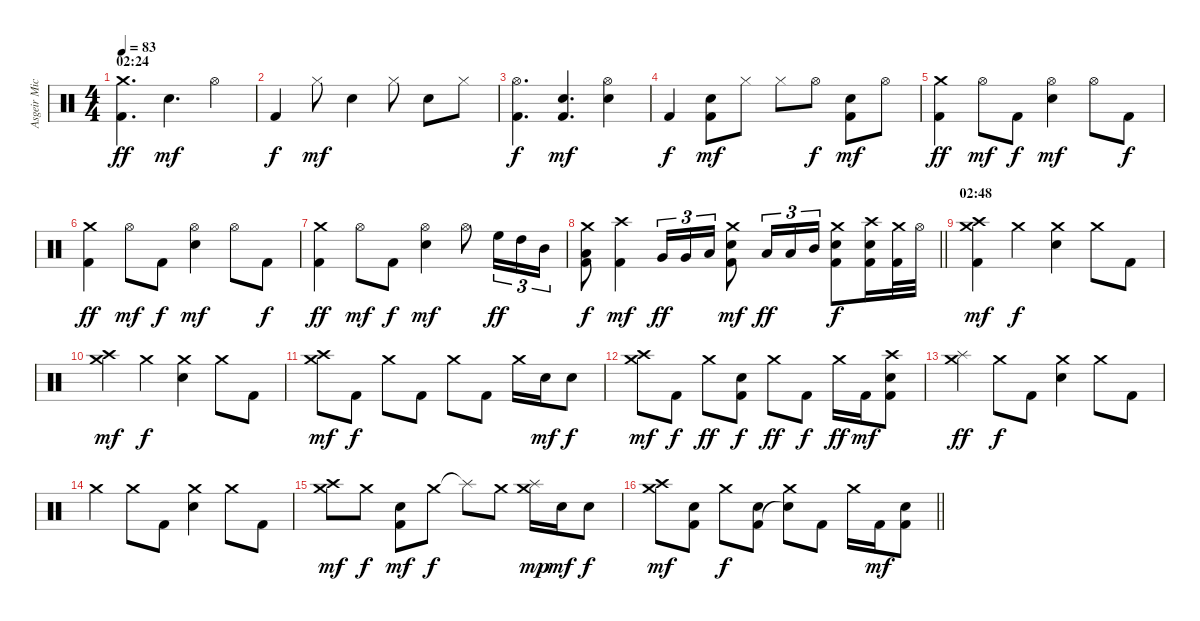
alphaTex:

\track ("Asgeir Mickelson" "Asgeir Mic") {instrument percussion}
\staff {score}
\articulation defaults
\ts (4 4)
\section ("" "02:24")
\tempo 83
\clef neutral
\ks c
("Crash medium (hit)" "Kick (hit) 2").4{d dy ff} "Snare (hit) 2".4{d dy mf} "Hi-Hat (open)".4 |
"Kick (hit) 2".4{dy f} "Hi-Hat (closed)".8{dy mf} "Snare (hit) 2".4 "Hi-Hat (closed)".8 "Snare (hit) 2".8 "Hi-Hat (closed)".8 |
("Hi-Hat (open)" "Kick (hit) 2").4{d dy f} ("Snare (hit) 2" "Kick (hit) 2").4{d dy mf} ("Snare (hit) 2" "Hi-Hat (open)").4 |
"Kick (hit) 2".4{dy f} ("Snare (hit) 2" "Kick (hit) 2").8{dy mf} "Hi-Hat (closed)".8 "Hi-Hat (closed)".8 "Hi-Hat (open)".8{dy f} ("Snare (hit) 2" "Kick (hit) 2").8{dy mf} "Hi-Hat (open)".8 |
("Crash medium (hit)" "Kick (hit) 2").4{dy ff} "Hi-Hat (open)".8{dy mf} "Kick (hit) 2".8{dy f} ("Snare (hit) 2" "Hi-Hat (open)").4{dy mf} "Hi-Hat (open)".8 "Kick (hit) 2".8{dy f} |
("Crash medium (hit)" "Kick (hit) 2").4{dy ff} "Hi-Hat (open)".8{dy mf} "Kick (hit) 2".8{dy f} ("Snare (hit) 2" "Hi-Hat (open)").4{dy mf} "Hi-Hat (open)".8 "Kick (hit) 2".8{dy f} |
("Crash medium (hit)" "Kick (hit) 2").4{dy ff} "Hi-Hat (open)".8{dy mf} "Kick (hit) 2".8{dy f} ("Snare (hit) 2" "Hi-Hat (open)").4{dy mf} "Hi-Hat (open)".8 "High Floor Tom (hit)".16{tu (3 2) dy ff} "High Tom (hit)".16{tu (3 2)} "Mid Tom (hit)".16{tu (3 2)} |
\barLineRight lightlight
("Crash medium (hit)" "Low Tom (hit)" "Kick (hit) 2").8{dy f} ("Crash high (hit)" "Kick (hit) 2").4{dy mf} "Very Low Tom (hit)".16{tu (3 2) dy ff} "Very Low Tom (hit)".16{tu (3 2)} "Low Tom (hit)".16{tu (3 2)} ("Crash medium (hit)" "Snare (hit) 2" "Kick (hit) 2").8{dy mf} "Low Tom (hit)".16{tu (3 2) dy ff} "Low Tom (hit)".16{tu (3 2)} "Mid Tom (hit)".16{tu (3 2)} ("Crash medium (hit)" "Snare (hit) 2" "Kick (hit) 2").8{dy f} ("Crash high (hit)" "Snare (hit) 2" "Kick (hit) 2").16 ("Crash medium (hit)" "Kick (hit) 2").32 "Hi-Hat (open)".32 |
\section ("" "02:48")
("Crash high (hit)" "Crash medium (hit)" "Kick (hit) 2").4{dy mf} "Crash medium (hit)".4{dy f} ("Snare (hit) 2" "Crash medium (hit)").4 "Crash medium (hit)".8 "Kick (hit) 2".8 |
("Crash high (hit)" "Crash medium (hit)").4{dy mf} "Crash medium (hit)".4{dy f} ("Snare (hit) 2" "Crash medium (hit)").4 "Crash medium (hit)".8 "Kick (hit) 2".8 |
("Crash high (hit)" "Crash medium (hit)").8{dy mf} "Kick (hit) 2".8{dy f} "Crash medium (hit)".8 "Kick (hit) 2".8 "Crash medium (hit)".8 "Kick (hit) 2".8 "Crash medium (hit)".16 "Snare (hit) 2".16{dy mf} "Snare (hit) 2".8{dy f} |
("Crash high (hit)" "Crash medium (hit)").8{dy mf} "Kick (hit) 2".8{dy f} "Crash medium (hit)".8{dy ff} ("Snare (hit) 2" "Kick (hit) 2").8{dy f} "Crash medium (hit)".8{dy ff} "Kick (hit) 2".8{dy f} "Crash medium (hit)".16{dy ff} "Kick (hit) 2".16{dy mf} ("Crash high (hit)" "Snare (hit) 2" "Kick (hit) 2").8 |
("Crash medium (hit)" "Splash (hit)").4{dy ff} "Crash medium (hit)".8{dy f} "Kick (hit) 2".8 ("Snare (hit) 2" "Crash medium (hit)").4 "Crash medium (hit)".8 "Kick (hit) 2".8 |
"Crash medium (hit)".4 "Crash medium (hit)".8 "Kick (hit) 2".8 ("Snare (hit) 2" "Crash medium (hit)").4 "Crash medium (hit)".8 "Kick (hit) 2".8 |
("Crash high (hit)" "Crash medium (hit)").8{dy mf} "Crash medium (hit)".8{dy f} ("Snare (hit) 2" "Kick (hit) 2").8{dy mf} "Crash medium (hit)".8{dy f} "Splash (hit)"{t}.8 "Crash medium (hit)".8 ("Crash medium (hit)" "Splash (hit)").16{dy mp} "Snare (hit) 2".16{dy mf} "Snare (hit) 2".8{dy f} |
\barLineRight lightlight
("Crash high (hit)" "Crash medium (hit)").8{dy mf} ("Snare (hit) 2" "Kick (hit) 2").8 "Crash medium (hit)".8{dy f} ("Snare (hit) 2" "Kick (hit) 2").8 ("Crash medium (hit)" "Snare (hit)"{t}).8 "Kick (hit) 2".8 "Crash medium (hit)".16 "Kick (hit) 2".16{dy mf} ("Snare (hit) 2" "Kick (hit) 2").8
